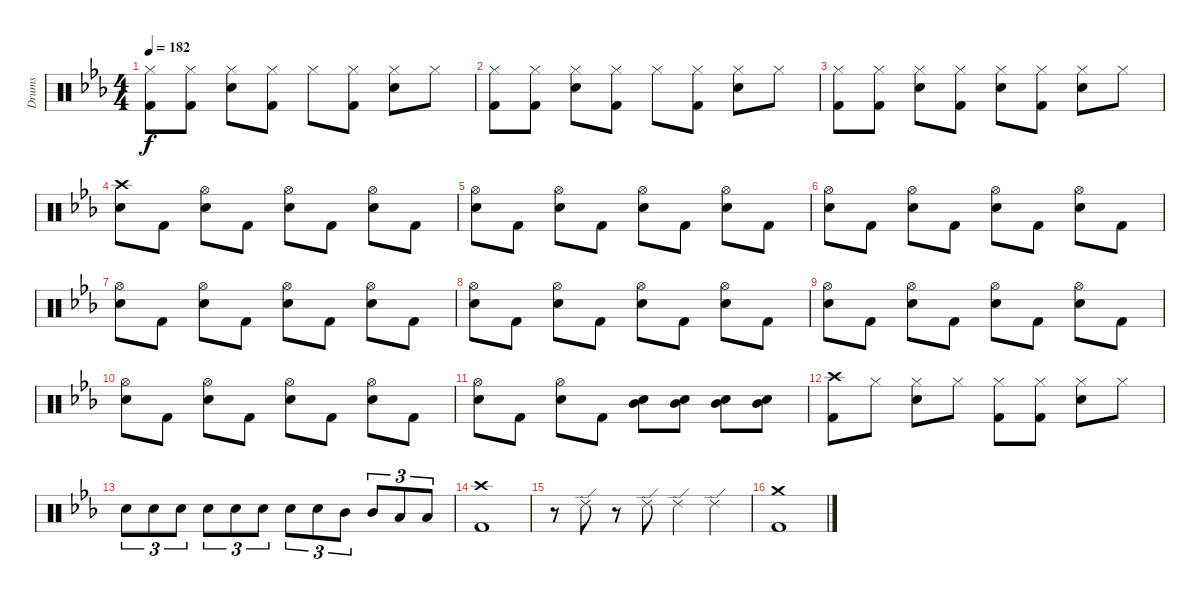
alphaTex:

\track ("Drums" "Drums") {instrument percussion}
\staff {score}
\articulation defaults
\ts (4 4)
\tempo 182
\clef neutral
\ks eb
("Hi-Hat (closed)" "Kick (hit) 2").8{dy f} ("Hi-Hat (closed)" "Kick (hit) 2").8 ("Hi-Hat (closed)" "Snare (hit) 2").8 ("Hi-Hat (closed)" "Kick (hit) 2").8 "Hi-Hat (closed)".8 ("Hi-Hat (closed)" "Kick (hit) 2").8 ("Hi-Hat (closed)" "Snare (hit) 2").8 "Hi-Hat (closed)".8 |
("Hi-Hat (closed)" "Kick (hit) 2").8 ("Hi-Hat (closed)" "Kick (hit) 2").8 ("Hi-Hat (closed)" "Snare (hit) 2").8 ("Hi-Hat (closed)" "Kick (hit) 2").8 "Hi-Hat (closed)".8 ("Hi-Hat (closed)" "Kick (hit) 2").8 ("Hi-Hat (closed)" "Snare (hit) 2").8 "Hi-Hat (closed)".8 |
("Hi-Hat (closed)" "Kick (hit) 2").8 ("Hi-Hat (closed)" "Kick (hit) 2").8 ("Hi-Hat (closed)" "Snare (hit) 2").8 ("Hi-Hat (closed)" "Kick (hit) 2").8 ("Hi-Hat (closed)" "Snare (hit) 2").8 ("Hi-Hat (closed)" "Kick (hit) 2").8 ("Hi-Hat (closed)" "Snare (hit) 2").8 "Hi-Hat (closed)".8 |
("Crash high (hit)" "Snare (hit) 2").8 "Kick (hit) 2".8 ("Hi-Hat (open)" "Snare (hit) 2").8 "Kick (hit) 2".8 ("Hi-Hat (open)" "Snare (hit) 2").8 "Kick (hit) 2".8 ("Hi-Hat (open)" "Snare (hit) 2").8 "Kick (hit) 2".8 |
("Hi-Hat (open)" "Snare (hit) 2").8 "Kick (hit) 2".8 ("Hi-Hat (open)" "Snare (hit) 2").8 "Kick (hit) 2".8 ("Hi-Hat (open)" "Snare (hit) 2").8 "Kick (hit) 2".8 ("Hi-Hat (open)" "Snare (hit) 2").8 "Kick (hit) 2".8 |
("Hi-Hat (open)" "Snare (hit) 2").8 "Kick (hit) 2".8 ("Hi-Hat (open)" "Snare (hit) 2").8 "Kick (hit) 2".8 ("Hi-Hat (open)" "Snare (hit) 2").8 "Kick (hit) 2".8 ("Hi-Hat (open)" "Snare (hit) 2").8 "Kick (hit) 2".8 |
("Hi-Hat (open)" "Snare (hit) 2").8 "Kick (hit) 2".8 ("Hi-Hat (open)" "Snare (hit) 2").8 "Kick (hit) 2".8 ("Hi-Hat (open)" "Snare (hit) 2").8 "Kick (hit) 2".8 ("Hi-Hat (open)" "Snare (hit) 2").8 "Kick (hit) 2".8 |
("Hi-Hat (open)" "Snare (hit) 2").8 "Kick (hit) 2".8 ("Hi-Hat (open)" "Snare (hit) 2").8 "Kick (hit) 2".8 ("Hi-Hat (open)" "Snare (hit) 2").8 "Kick (hit) 2".8 ("Hi-Hat (open)" "Snare (hit) 2").8 "Kick (hit) 2".8 |
("Hi-Hat (open)" "Snare (hit) 2").8 "Kick (hit) 2".8 ("Hi-Hat (open)" "Snare (hit) 2").8 "Kick (hit) 2".8 ("Hi-Hat (open)" "Snare (hit) 2").8 "Kick (hit) 2".8 ("Hi-Hat (open)" "Snare (hit) 2").8 "Kick (hit) 2".8 |
("Hi-Hat (open)" "Snare (hit) 2").8 "Kick (hit) 2".8 ("Hi-Hat (open)" "Snare (hit) 2").8 "Kick (hit) 2".8 ("Hi-Hat (open)" "Snare (hit) 2").8 "Kick (hit) 2".8 ("Hi-Hat (open)" "Snare (hit) 2").8 "Kick (hit) 2".8 |
("Hi-Hat (open)" "Snare (hit) 2").8 "Kick (hit) 2".8 ("Hi-Hat (open)" "Snare (hit) 2").8 "Kick (hit) 2".8 ("Mid Tom (hit)" "Snare (hit) 2").8 ("Mid Tom (hit)" "Snare (hit) 2").8 ("Mid Tom (hit)" "Snare (hit) 2").8 ("Mid Tom (hit)" "Snare (hit) 2").8 |
("Crash high (hit)" "Kick (hit) 2").8 "Hi-Hat (closed)".8 ("Hi-Hat (closed)" "Snare (hit) 2").8 "Hi-Hat (closed)".8 ("Hi-Hat (closed)" "Kick (hit) 2").8 ("Hi-Hat (closed)" "Kick (hit) 2").8 ("Hi-Hat (closed)" "Snare (hit) 2").8 "Hi-Hat (closed)".8 |
"Snare (hit) 2".8{tu (3 2)} "Snare (hit) 2".8{tu (3 2)} "Snare (hit) 2".8{tu (3 2)} "Snare (hit) 2".8{tu (3 2)} "Snare (hit) 2".8{tu (3 2)} "Snare (hit) 2".8{tu (3 2)} "Snare (hit) 2".8{tu (3 2)} "Snare (hit) 2".8{tu (3 2)} "Mid Tom (hit)".8{tu (3 2)} "Mid Tom (hit)".8{tu (3 2)} "Low Tom (hit)".8{tu (3 2)} "Low Tom (hit)".8{tu (3 2)} |
("Crash high (hit)" "Kick (hit) 2").1 |
r.8 "Ride (edge) 2".8 r.8 "Ride (edge) 2".8 "Ride (edge) 2".4 "Ride (edge) 2".4 |
("Crash medium (hit)" "Kick (hit) 2").1
